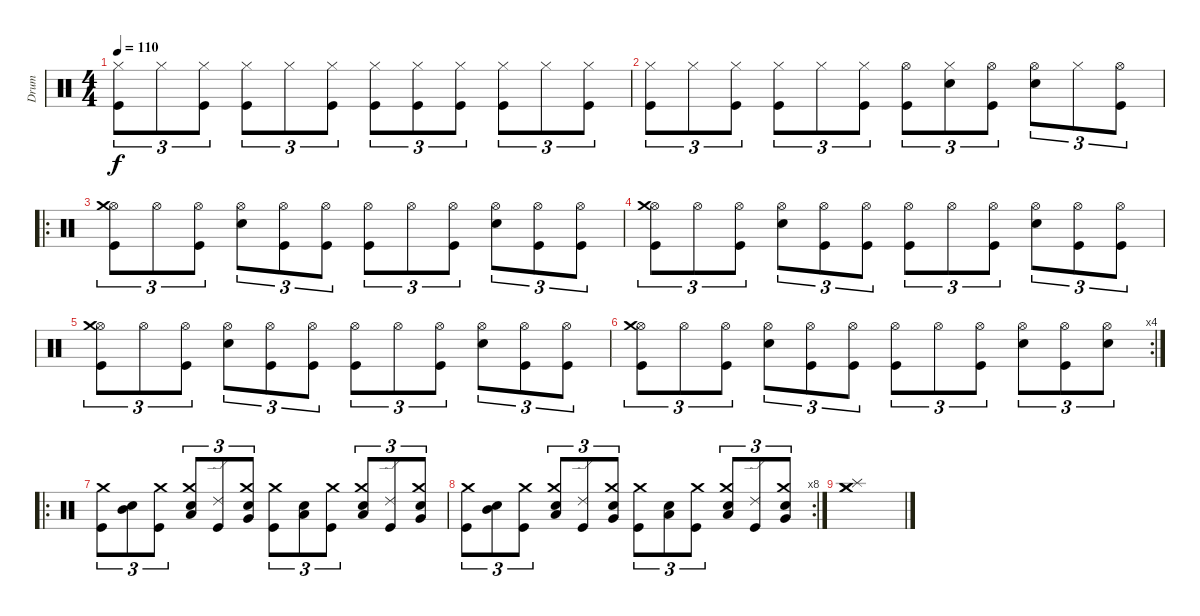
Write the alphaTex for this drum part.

\track ("Drum" "Drum") {instrument percussion}
\staff {score}
\articulation defaults
\ts (4 4)
\tempo 110
\clef neutral
\ks c
("Hi-Hat (closed)" "Kick (hit)").8{tu (3 2) dy f} "Hi-Hat (closed)".8{tu (3 2)} ("Hi-Hat (closed)" "Kick (hit)").8{tu (3 2)} ("Hi-Hat (closed)" "Kick (hit)").8{tu (3 2)} "Hi-Hat (closed)".8{tu (3 2)} ("Hi-Hat (closed)" "Kick (hit)").8{tu (3 2)} ("Hi-Hat (closed)" "Kick (hit)").8{tu (3 2)} ("Hi-Hat (closed)" "Kick (hit)").8{tu (3 2)} ("Hi-Hat (closed)" "Kick (hit)").8{tu (3 2)} ("Hi-Hat (closed)" "Kick (hit)").8{tu (3 2)} "Hi-Hat (closed)".8{tu (3 2)} ("Hi-Hat (closed)" "Kick (hit)").8{tu (3 2)} |
("Hi-Hat (closed)" "Kick (hit)").8{tu (3 2)} "Hi-Hat (closed)".8{tu (3 2)} ("Hi-Hat (closed)" "Kick (hit)").8{tu (3 2)} ("Hi-Hat (closed)" "Kick (hit)").8{tu (3 2)} "Hi-Hat (closed)".8{tu (3 2)} ("Hi-Hat (closed)" "Kick (hit)").8{tu (3 2)} ("Hi-Hat (open)" "Kick (hit)").8{tu (3 2)} ("Hi-Hat (closed)" "Snare (hit) 2").8{tu (3 2)} ("Hi-Hat (open)" "Kick (hit)").8{tu (3 2)} ("Hi-Hat (open)" "Snare (hit) 2").8{tu (3 2)} "Hi-Hat (closed)".8{tu (3 2)} ("Hi-Hat (open)" "Kick (hit)").8{tu (3 2)} |
\ro
("Hi-Hat (open)" "Crash medium (hit)" "Kick (hit)").8{tu (3 2)} "Hi-Hat (open)".8{tu (3 2)} ("Hi-Hat (open)" "Kick (hit)").8{tu (3 2)} ("Hi-Hat (open)" "Snare (hit) 2").8{tu (3 2)} ("Hi-Hat (open)" "Kick (hit)").8{tu (3 2)} ("Hi-Hat (open)" "Kick (hit)").8{tu (3 2)} ("Hi-Hat (open)" "Kick (hit)").8{tu (3 2)} "Hi-Hat (open)".8{tu (3 2)} ("Hi-Hat (open)" "Kick (hit)").8{tu (3 2)} ("Hi-Hat (open)" "Snare (hit) 2").8{tu (3 2)} ("Hi-Hat (open)" "Kick (hit)").8{tu (3 2)} ("Hi-Hat (open)" "Kick (hit)").8{tu (3 2)} |
("Hi-Hat (open)" "Crash medium (hit)" "Kick (hit)").8{tu (3 2)} "Hi-Hat (open)".8{tu (3 2)} ("Hi-Hat (open)" "Kick (hit)").8{tu (3 2)} ("Hi-Hat (open)" "Snare (hit) 2").8{tu (3 2)} ("Hi-Hat (open)" "Kick (hit)").8{tu (3 2)} ("Hi-Hat (open)" "Kick (hit)").8{tu (3 2)} ("Hi-Hat (open)" "Kick (hit)").8{tu (3 2)} "Hi-Hat (open)".8{tu (3 2)} ("Hi-Hat (open)" "Kick (hit)").8{tu (3 2)} ("Hi-Hat (open)" "Snare (hit) 2").8{tu (3 2)} ("Hi-Hat (open)" "Kick (hit)").8{tu (3 2)} ("Hi-Hat (open)" "Kick (hit)").8{tu (3 2)} |
("Hi-Hat (open)" "Crash medium (hit)" "Kick (hit)").8{tu (3 2)} "Hi-Hat (open)".8{tu (3 2)} ("Hi-Hat (open)" "Kick (hit)").8{tu (3 2)} ("Hi-Hat (open)" "Snare (hit) 2").8{tu (3 2)} ("Hi-Hat (open)" "Kick (hit)").8{tu (3 2)} ("Hi-Hat (open)" "Kick (hit)").8{tu (3 2)} ("Hi-Hat (open)" "Kick (hit)").8{tu (3 2)} "Hi-Hat (open)".8{tu (3 2)} ("Hi-Hat (open)" "Kick (hit)").8{tu (3 2)} ("Hi-Hat (open)" "Snare (hit) 2").8{tu (3 2)} ("Hi-Hat (open)" "Kick (hit)").8{tu (3 2)} ("Hi-Hat (open)" "Kick (hit)").8{tu (3 2)} |
\rc 4
("Hi-Hat (open)" "Crash medium (hit)" "Kick (hit)").8{tu (3 2)} "Hi-Hat (open)".8{tu (3 2)} ("Hi-Hat (open)" "Kick (hit)").8{tu (3 2)} ("Hi-Hat (open)" "Snare (hit) 2").8{tu (3 2)} ("Hi-Hat (open)" "Kick (hit)").8{tu (3 2)} ("Hi-Hat (open)" "Kick (hit)").8{tu (3 2)} ("Hi-Hat (open)" "Kick (hit)").8{tu (3 2)} "Hi-Hat (open)".8{tu (3 2)} ("Hi-Hat (open)" "Kick (hit)").8{tu (3 2)} ("Hi-Hat (open)" "Snare (hit) 2").8{tu (3 2)} ("Hi-Hat (open)" "Kick (hit)").8{tu (3 2)} ("Hi-Hat (open)" "Snare (hit) 2").8{tu (3 2)} |
\ro
("Crash medium (hit)" "Kick (hit)").8{tu (3 2)} ("Snare (hit)" "Mid Tom (hit)").8{tu (3 2)} ("Crash medium (hit)" "Kick (hit)").8{tu (3 2)} ("Crash medium (hit)" "Low Tom (hit)" "Snare (hit) 2").8{tu (3 2)} ("Ride (edge) 2" "Kick (hit)").8{tu (3 2)} ("Crash medium (hit)" "Very Low Tom (hit)" "Snare (hit) 2").8{tu (3 2)} ("Crash medium (hit)" "Kick (hit)").8{tu (3 2)} ("Snare (hit)" "Low Floor Tom (hit)").8{tu (3 2)} ("Crash medium (hit)" "Kick (hit)").8{tu (3 2)} ("Crash medium (hit)" "Low Tom (hit)" "Snare (hit) 2").8{tu (3 2)} ("Ride (edge) 2" "Kick (hit)").8{tu (3 2)} ("Crash medium (hit)" "Very Low Tom (hit)" "Snare (hit) 2").8{tu (3 2)} |
\rc 8
("Crash medium (hit)" "Kick (hit)").8{tu (3 2)} ("Snare (hit)" "Mid Tom (hit)").8{tu (3 2)} ("Crash medium (hit)" "Kick (hit)").8{tu (3 2)} ("Crash medium (hit)" "Low Tom (hit)" "Snare (hit) 2").8{tu (3 2)} ("Ride (edge) 2" "Kick (hit)").8{tu (3 2)} ("Crash medium (hit)" "Very Low Tom (hit)" "Snare (hit) 2").8{tu (3 2)} ("Crash medium (hit)" "Kick (hit)").8{tu (3 2)} ("Snare (hit)" "Low Floor Tom (hit)").8{tu (3 2)} ("Crash medium (hit)" "Kick (hit)").8{tu (3 2)} ("Crash medium (hit)" "Low Tom (hit)" "Snare (hit) 2").8{tu (3 2)} ("Ride (edge) 2" "Kick (hit)").8{tu (3 2)} ("Crash medium (hit)" "Very Low Tom (hit)" "Snare (hit) 2").8{tu (3 2)} |
("Crash medium (hit)" "Crash medium (hit)" "Splash (hit)").1
